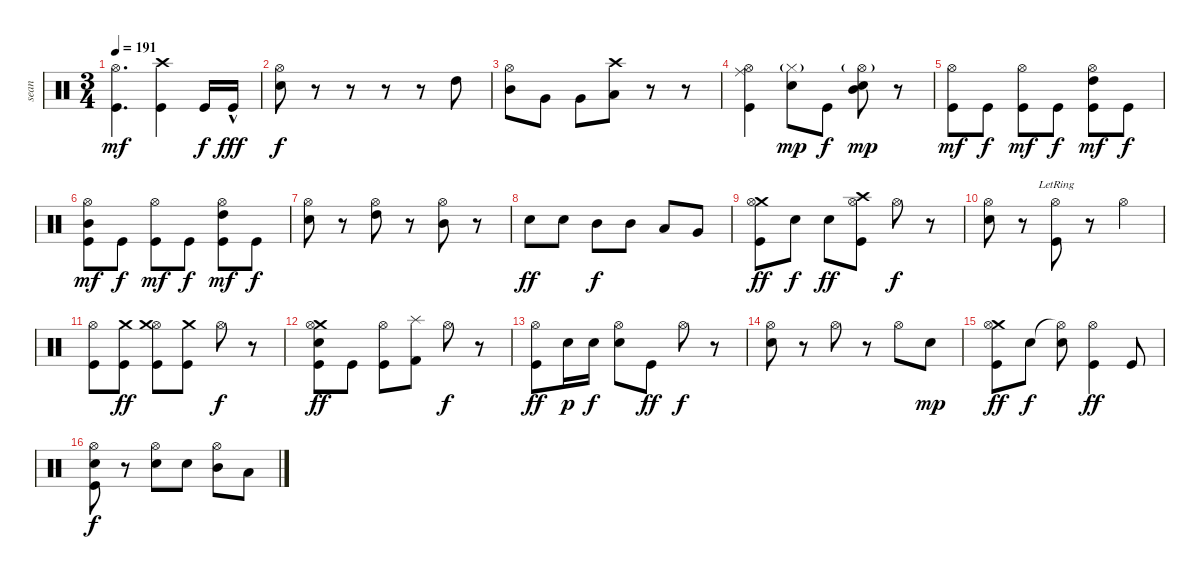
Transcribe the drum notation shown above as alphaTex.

\track ("sean" "sean") {instrument percussion}
\staff {score}
\articulation defaults
\ts (3 4)
\tempo 191
\clef neutral
\ks c
("Hi-Hat (open)" "Kick (hit)").4{d dy mf} ("Crash high (hit)" "Kick (hit)").4 "Kick (hit)".16{dy f} "Kick (hit)"{hac}.16{dy fff} |
("Hi-Hat (open)" "Electric Snare (hit)").8{dy f} r.8 r.8 r.8 r.8 "High Tom (hit)".8 |
("Hi-Hat (open)" "Mid Tom (hit)").8 "Very Low Tom (hit)".8 "Very Low Tom (hit)".8 ("Crash high (hit)" "Low Floor Tom (hit)").8 r.8 r.8 |
("Hi-Hat (open)" "Kick (hit)" "Ride (middle)").4 ("Hi-Hat (closed)"{g} "Electric Snare (hit)").8{dy mp} "Kick (hit)".8{dy f} ("Mid Tom (hit)" "Hi-Hat (open)"{g} "Electric Snare (hit)").8{dy mp} r.8 |
("Hi-Hat (open)" "Kick (hit)").8{dy mf} "Kick (hit)".8{dy f} ("Hi-Hat (open)" "Kick (hit)").8{dy mf} "Kick (hit)".8{dy f} ("Hi-Hat (open)" "High Tom (hit)" "Kick (hit)").8{dy mf} "Kick (hit)".8{dy f} |
("Hi-Hat (open)" "Mid Tom (hit)" "Kick (hit)").8{dy mf} "Kick (hit)".8{dy f} ("Hi-Hat (open)" "Kick (hit)").8{dy mf} "Kick (hit)".8{dy f} ("Hi-Hat (open)" "High Tom (hit)" "Kick (hit)").8{dy mf} "Kick (hit)".8{dy f} |
("Hi-Hat (open)" "Electric Snare (hit)").8 r.8 ("Hi-Hat (open)" "High Tom (hit)").8 r.8 ("Hi-Hat (open)" "Mid Tom (hit)").8 r.8 |
"Electric Snare (hit)".8{dy ff} "Electric Snare (hit)".8 "Mid Tom (hit)".8{dy f} "Mid Tom (hit)".8 "Low Tom (hit)".8 "Very Low Tom (hit)".8 |
("Crash medium (hit)" "Hi-Hat (open)" "Kick (hit)").8{dy ff} "Electric Snare (hit)".8{dy f} "Electric Snare (hit)".8{dy ff} ("Crash high (hit)" "Hi-Hat (open)" "Kick (hit)").8 "Hi-Hat (open)".8{dy f} r.8 |
("Hi-Hat (open)" "Electric Snare (hit)").8 r.8 ("Hi-Hat (open)" "Kick (hit)"{lr}).8 r.8 "Hi-Hat (open)".4 |
("Hi-Hat (open)" "Kick (hit)").8 ("Crash medium (hit)" "Kick (hit)").8{dy ff} ("Hi-Hat (open)" "Crash medium (hit)" "Kick (hit)").8 ("Crash medium (hit)" "Kick (hit)").8 "Hi-Hat (open)".8{dy f} r.8 |
("Crash medium (hit)" "Hi-Hat (open)" "Electric Snare (hit)" "Kick (hit)").8{dy ff} "Kick (hit)".8 ("Hi-Hat (open)" "Kick (hit)").8 ("Splash (hit)" "Kick (hit) 2").8 "Hi-Hat (open)".8{dy f} r.8 |
("Hi-Hat (open)" "Kick (hit)").8{dy ff} "Electric Snare (hit)".16{dy p} "Electric Snare (hit)".16{dy f} ("Hi-Hat (open)" "Electric Snare (hit)").8 "Kick (hit)".8{dy ff} "Hi-Hat (open)".8{dy f} r.8 |
("Hi-Hat (open)" "Electric Snare (hit)").8 r.8 "Hi-Hat (open)".8 r.8 "Hi-Hat (open)".8 "Electric Snare (hit)".8{dy mp} |
("Crash medium (hit)" "Hi-Hat (open)" "Kick (hit)").8{dy ff} "Electric Snare (hit)".8{dy f} ("Hi-Hat (open)"{t} "Electric Snare (hit)").8 ("Hi-Hat (open)" "Kick (hit)").4{dy ff} "Kick (hit)".8 |
("Hi-Hat (open)" "Electric Snare (hit)" "Kick (hit)").8{dy f} r.8 ("Hi-Hat (open)" "Electric Snare (hit)").8 "Electric Snare (hit)".8 ("Hi-Hat (open)" "Mid Tom (hit)").8 "Low Tom (hit)".8
